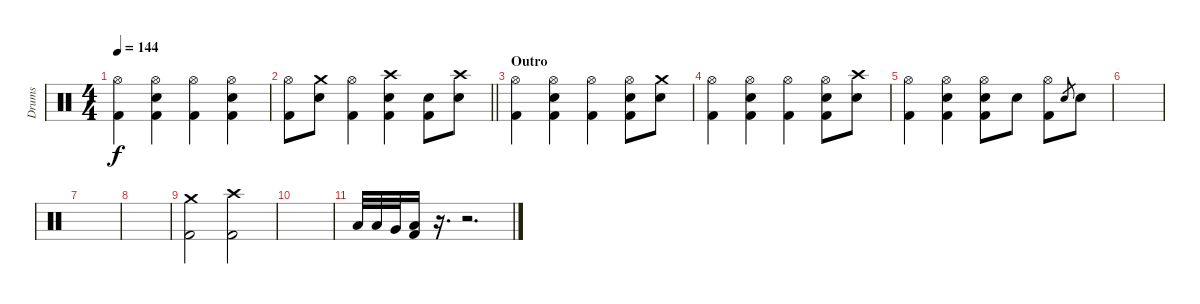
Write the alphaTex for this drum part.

\track ("Drums" "Drums") {instrument percussion}
\staff {score}
\articulation defaults
\ts (4 4)
\tempo 144
\clef neutral
\ks c
("Hi-Hat (open)" "Kick (hit) 2").4{dy f} ("Hi-Hat (open)" "Electric Snare (hit)" "Kick (hit) 2").4 ("Hi-Hat (open)" "Kick (hit) 2").4 ("Hi-Hat (open)" "Electric Snare (hit)" "Kick (hit) 2").4 |
\barLineRight lightlight
("Hi-Hat (open)" "Kick (hit) 2").8 ("Crash medium (hit)" "Electric Snare (hit)").8 ("Hi-Hat (open)" "Kick (hit) 2").4 ("Crash high (hit)" "Electric Snare (hit)" "Kick (hit) 2").4 ("Electric Snare (hit)" "Kick (hit) 2").8 ("Crash high (hit)" "Electric Snare (hit)").8 |
\section ("" "Outro")
("Hi-Hat (open)" "Kick (hit) 2").4 ("Hi-Hat (open)" "Electric Snare (hit)" "Kick (hit) 2").4 ("Hi-Hat (open)" "Kick (hit) 2").4 ("Hi-Hat (open)" "Electric Snare (hit)" "Kick (hit) 2").8 ("Crash medium (hit)" "Electric Snare (hit)").8 |
("Hi-Hat (open)" "Kick (hit) 2").4 ("Hi-Hat (open)" "Electric Snare (hit)" "Kick (hit) 2").4 ("Hi-Hat (open)" "Kick (hit) 2").4 ("Hi-Hat (open)" "Electric Snare (hit)" "Kick (hit) 2").8 ("Crash high (hit)" "Electric Snare (hit)").8 |
("Hi-Hat (open)" "Kick (hit) 2").4 ("Hi-Hat (open)" "Electric Snare (hit)" "Kick (hit) 2").4 ("Hi-Hat (open)" "Electric Snare (hit)" "Kick (hit) 2").8 "Electric Snare (hit)".8 ("Hi-Hat (open)" "Kick (hit) 2").8 "Electric Snare (hit)".8{gr} "Electric Snare (hit)".8 |
|
|
|
("Crash medium (hit)" "Kick (hit) 2").2 ("Crash high (hit)" "Kick (hit) 2").2 |
|
"Low Floor Tom (hit)".32 "Low Floor Tom (hit)".32 "Very Low Tom (hit)".32 ("Low Floor Tom (hit)" "Kick (hit) 2").16 r.16{d} r.2{d}
